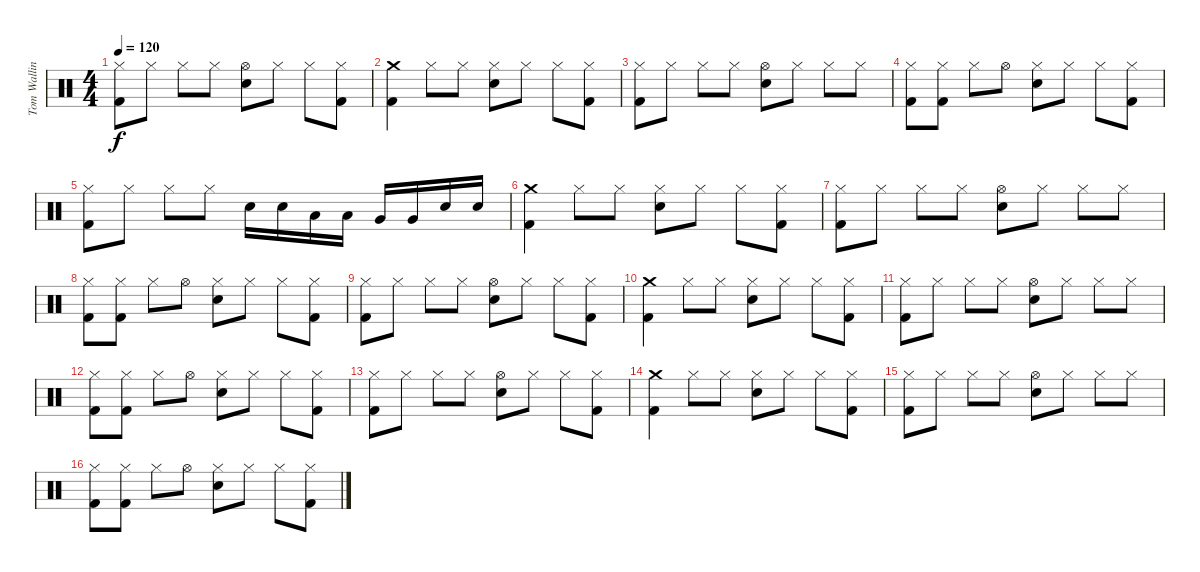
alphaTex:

\track ("Tom Walling (Drums)" "Tom Wallin") {instrument percussion}
\staff {score}
\articulation defaults
\ts (4 4)
\tempo 120
\clef neutral
\ks c
("Hi-Hat (closed)" "Kick (hit) 2").8{dy f} "Hi-Hat (closed)".8 "Hi-Hat (closed)".8 "Hi-Hat (closed)".8 ("Hi-Hat (open)" "Electric Snare (hit)").8 "Hi-Hat (closed)".8 "Hi-Hat (closed)".8 ("Hi-Hat (closed)" "Kick (hit) 2").8 |
("Crash medium (hit)" "Kick (hit) 2").4 "Hi-Hat (closed)".8 "Hi-Hat (closed)".8 ("Hi-Hat (closed)" "Electric Snare (hit)").8 "Hi-Hat (closed)".8 "Hi-Hat (closed)".8 ("Hi-Hat (closed)" "Kick (hit) 2").8 |
("Hi-Hat (closed)" "Kick (hit) 2").8 "Hi-Hat (closed)".8 "Hi-Hat (closed)".8 "Hi-Hat (closed)".8 ("Hi-Hat (open)" "Electric Snare (hit)").8 "Hi-Hat (closed)".8 "Hi-Hat (closed)".8 "Hi-Hat (closed)".8 |
("Hi-Hat (closed)" "Kick (hit) 2").8 ("Hi-Hat (closed)" "Kick (hit) 2").8 "Hi-Hat (closed)".8 "Hi-Hat (open)".8 ("Hi-Hat (closed)" "Electric Snare (hit)").8 "Hi-Hat (closed)".8 "Hi-Hat (closed)".8 ("Hi-Hat (closed)" "Kick (hit) 2").8 |
("Hi-Hat (closed)" "Kick (hit) 2").8 "Hi-Hat (closed)".8 "Hi-Hat (closed)".8 "Hi-Hat (closed)".8 "Electric Snare (hit)".16 "Electric Snare (hit)".16 "Low Tom (hit)".16 "Low Tom (hit)".16 "Very Low Tom (hit)".16 "Very Low Tom (hit)".16 "Electric Snare (hit)".16 "Electric Snare (hit)".16 |
("Crash medium (hit)" "Kick (hit) 2").4 "Hi-Hat (closed)".8 "Hi-Hat (closed)".8 ("Hi-Hat (closed)" "Electric Snare (hit)").8 "Hi-Hat (closed)".8 "Hi-Hat (closed)".8 ("Hi-Hat (closed)" "Kick (hit) 2").8 |
("Hi-Hat (closed)" "Kick (hit) 2").8 "Hi-Hat (closed)".8 "Hi-Hat (closed)".8 "Hi-Hat (closed)".8 ("Hi-Hat (open)" "Electric Snare (hit)").8 "Hi-Hat (closed)".8 "Hi-Hat (closed)".8 "Hi-Hat (closed)".8 |
("Hi-Hat (closed)" "Kick (hit) 2").8 ("Hi-Hat (closed)" "Kick (hit) 2").8 "Hi-Hat (closed)".8 "Hi-Hat (open)".8 ("Hi-Hat (closed)" "Electric Snare (hit)").8 "Hi-Hat (closed)".8 "Hi-Hat (closed)".8 ("Hi-Hat (closed)" "Kick (hit) 2").8 |
("Hi-Hat (closed)" "Kick (hit) 2").8 "Hi-Hat (closed)".8 "Hi-Hat (closed)".8 "Hi-Hat (closed)".8 ("Hi-Hat (open)" "Electric Snare (hit)").8 "Hi-Hat (closed)".8 "Hi-Hat (closed)".8 ("Hi-Hat (closed)" "Kick (hit) 2").8 |
("Crash medium (hit)" "Kick (hit) 2").4 "Hi-Hat (closed)".8 "Hi-Hat (closed)".8 ("Hi-Hat (closed)" "Electric Snare (hit)").8 "Hi-Hat (closed)".8 "Hi-Hat (closed)".8 ("Hi-Hat (closed)" "Kick (hit) 2").8 |
("Hi-Hat (closed)" "Kick (hit) 2").8 "Hi-Hat (closed)".8 "Hi-Hat (closed)".8 "Hi-Hat (closed)".8 ("Hi-Hat (open)" "Electric Snare (hit)").8 "Hi-Hat (closed)".8 "Hi-Hat (closed)".8 "Hi-Hat (closed)".8 |
("Hi-Hat (closed)" "Kick (hit) 2").8 ("Hi-Hat (closed)" "Kick (hit) 2").8 "Hi-Hat (closed)".8 "Hi-Hat (open)".8 ("Hi-Hat (closed)" "Electric Snare (hit)").8 "Hi-Hat (closed)".8 "Hi-Hat (closed)".8 ("Hi-Hat (closed)" "Kick (hit) 2").8 |
("Hi-Hat (closed)" "Kick (hit) 2").8 "Hi-Hat (closed)".8 "Hi-Hat (closed)".8 "Hi-Hat (closed)".8 ("Hi-Hat (open)" "Electric Snare (hit)").8 "Hi-Hat (closed)".8 "Hi-Hat (closed)".8 ("Hi-Hat (closed)" "Kick (hit) 2").8 |
("Crash medium (hit)" "Kick (hit) 2").4 "Hi-Hat (closed)".8 "Hi-Hat (closed)".8 ("Hi-Hat (closed)" "Electric Snare (hit)").8 "Hi-Hat (closed)".8 "Hi-Hat (closed)".8 ("Hi-Hat (closed)" "Kick (hit) 2").8 |
("Hi-Hat (closed)" "Kick (hit) 2").8 "Hi-Hat (closed)".8 "Hi-Hat (closed)".8 "Hi-Hat (closed)".8 ("Hi-Hat (open)" "Electric Snare (hit)").8 "Hi-Hat (closed)".8 "Hi-Hat (closed)".8 "Hi-Hat (closed)".8 |
("Hi-Hat (closed)" "Kick (hit) 2").8 ("Hi-Hat (closed)" "Kick (hit) 2").8 "Hi-Hat (closed)".8 "Hi-Hat (open)".8 ("Hi-Hat (closed)" "Electric Snare (hit)").8 "Hi-Hat (closed)".8 "Hi-Hat (closed)".8 ("Hi-Hat (closed)" "Kick (hit) 2").8
